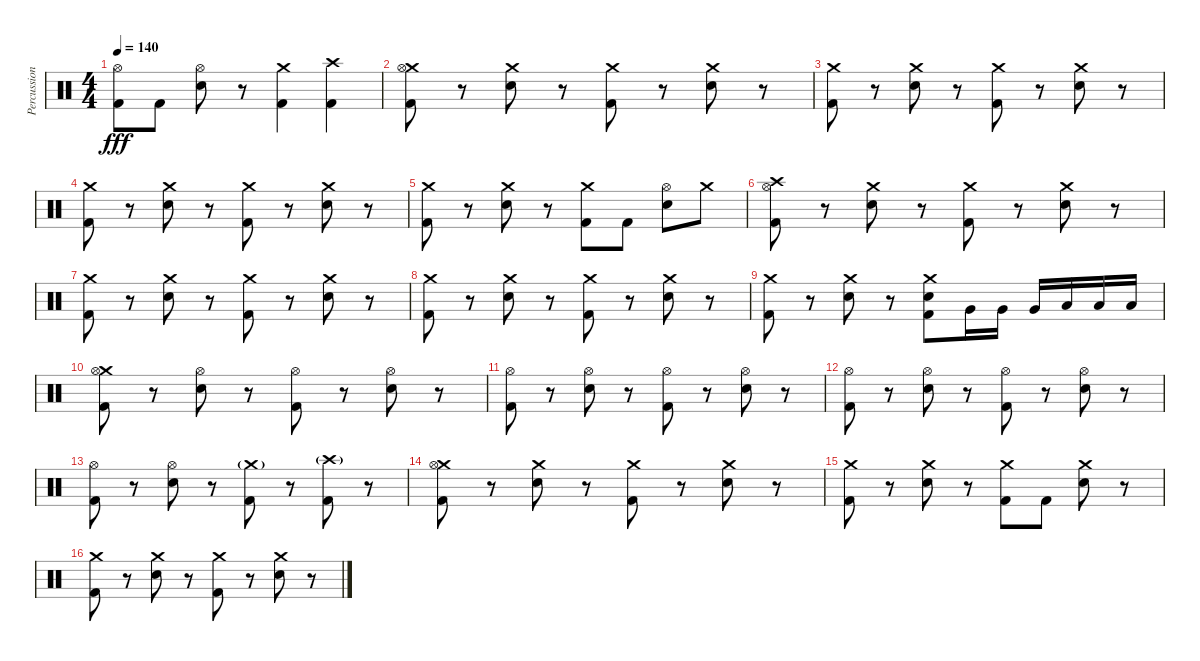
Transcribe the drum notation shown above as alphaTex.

\track ("Percussion" "Percussion") {instrument percussion}
\staff {score}
\articulation defaults
\ts (4 4)
\tempo 140
\clef neutral
\ks c
("Hi-Hat (open)" "Kick (hit) 2").8{dy fff} "Kick (hit) 2".8 ("Hi-Hat (open)" "Electric Snare (hit)").8 r.8 ("Crash medium (hit)" "Kick (hit) 2").4 ("Crash high (hit)" "Kick (hit) 2").4 |
("Crash medium (hit)" "Hi-Hat (open)" "Kick (hit) 2").8 r.8 ("Crash medium (hit)" "Electric Snare (hit)").8 r.8 ("Crash medium (hit)" "Kick (hit) 2").8 r.8 ("Crash medium (hit)" "Electric Snare (hit)").8 r.8 |
("Crash medium (hit)" "Kick (hit) 2").8 r.8 ("Crash medium (hit)" "Electric Snare (hit)").8 r.8 ("Crash medium (hit)" "Kick (hit) 2").8 r.8 ("Crash medium (hit)" "Electric Snare (hit)").8 r.8 |
("Crash medium (hit)" "Kick (hit) 2").8 r.8 ("Crash medium (hit)" "Electric Snare (hit)").8 r.8 ("Crash medium (hit)" "Kick (hit) 2").8 r.8 ("Crash medium (hit)" "Electric Snare (hit)").8 r.8 |
("Crash medium (hit)" "Kick (hit) 2").8 r.8 ("Crash medium (hit)" "Electric Snare (hit)").8 r.8 ("Crash medium (hit)" "Kick (hit) 2").8 "Kick (hit) 2".8 ("Hi-Hat (open)" "Electric Snare (hit)").8 "Crash medium (hit)".8 |
("Crash high (hit)" "Hi-Hat (open)" "Kick (hit) 2").8 r.8 ("Crash medium (hit)" "Electric Snare (hit)").8 r.8 ("Crash medium (hit)" "Kick (hit) 2").8 r.8 ("Crash medium (hit)" "Electric Snare (hit)").8 r.8 |
("Crash medium (hit)" "Kick (hit) 2").8 r.8 ("Crash medium (hit)" "Electric Snare (hit)").8 r.8 ("Crash medium (hit)" "Kick (hit) 2").8 r.8 ("Crash medium (hit)" "Electric Snare (hit)").8 r.8 |
("Crash medium (hit)" "Kick (hit) 2").8 r.8 ("Crash medium (hit)" "Electric Snare (hit)").8 r.8 ("Crash medium (hit)" "Kick (hit) 2").8 r.8 ("Crash medium (hit)" "Electric Snare (hit)").8 r.8 |
("Crash medium (hit)" "Kick (hit) 2").8 r.8 ("Crash medium (hit)" "Electric Snare (hit)").8 r.8 ("Crash medium (hit)" "Electric Snare (hit)" "Kick (hit) 2").8 "Very Low Tom (hit)".16 "Very Low Tom (hit)".16 "Very Low Tom (hit)".16 "Low Floor Tom (hit)".16 "Low Floor Tom (hit)".16 "Low Floor Tom (hit)".16 |
("Crash medium (hit)" "Hi-Hat (open)" "Kick (hit) 2").8 r.8 ("Hi-Hat (open)" "Electric Snare (hit)").8 r.8 ("Hi-Hat (open)" "Kick (hit) 2").8 r.8 ("Hi-Hat (open)" "Electric Snare (hit)").8 r.8 |
("Hi-Hat (open)" "Kick (hit) 2").8 r.8 ("Hi-Hat (open)" "Electric Snare (hit)").8 r.8 ("Hi-Hat (open)" "Kick (hit) 2").8 r.8 ("Hi-Hat (open)" "Electric Snare (hit)").8 r.8 |
("Hi-Hat (open)" "Kick (hit) 2").8 r.8 ("Hi-Hat (open)" "Electric Snare (hit)").8 r.8 ("Hi-Hat (open)" "Kick (hit) 2").8 r.8 ("Hi-Hat (open)" "Electric Snare (hit)").8 r.8 |
("Hi-Hat (open)" "Kick (hit) 2").8 r.8 ("Hi-Hat (open)" "Electric Snare (hit)").8 r.8 ("Crash medium (hit)"{g} "Kick (hit) 2").8 r.8 ("Crash high (hit)"{g} "Kick (hit) 2").8 r.8 |
("Crash medium (hit)" "Hi-Hat (open)" "Kick (hit) 2").8 r.8 ("Crash medium (hit)" "Electric Snare (hit)").8 r.8 ("Crash medium (hit)" "Kick (hit) 2").8 r.8 ("Crash medium (hit)" "Electric Snare (hit)").8 r.8 |
("Crash medium (hit)" "Kick (hit) 2").8 r.8 ("Crash medium (hit)" "Electric Snare (hit)").8 r.8 ("Crash medium (hit)" "Kick (hit) 2").8 "Kick (hit) 2".8 ("Crash medium (hit)" "Electric Snare (hit)").8 r.8 |
("Crash medium (hit)" "Kick (hit) 2").8 r.8 ("Crash medium (hit)" "Electric Snare (hit)").8 r.8 ("Crash medium (hit)" "Kick (hit) 2").8 r.8 ("Crash medium (hit)" "Electric Snare (hit)").8 r.8
